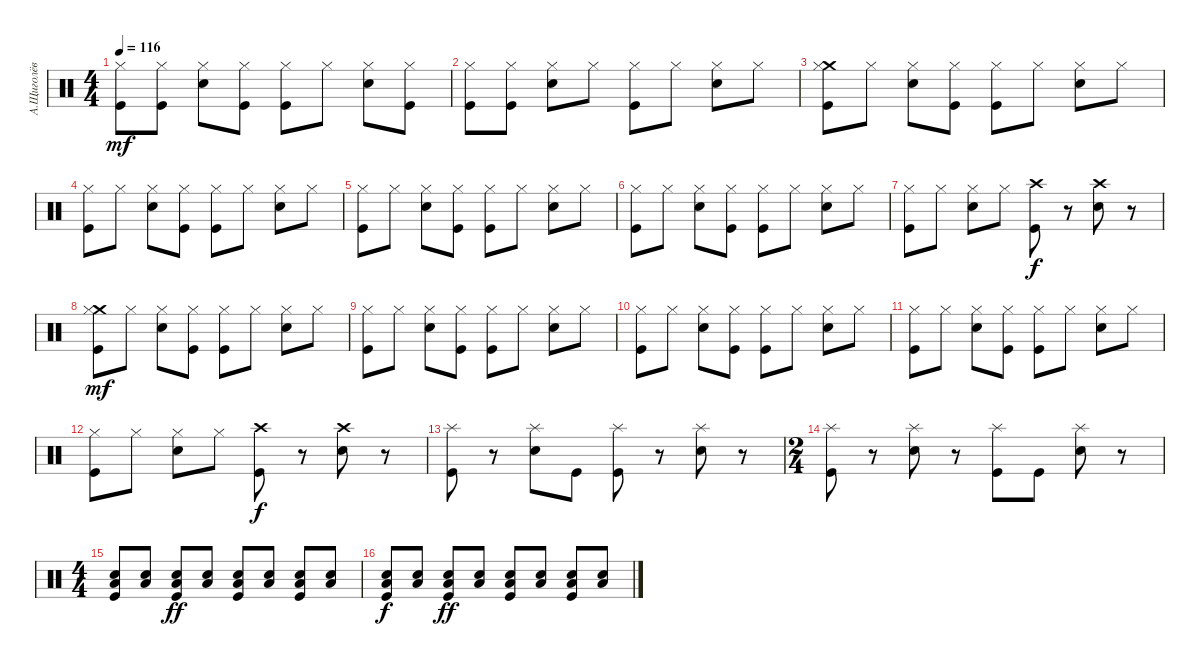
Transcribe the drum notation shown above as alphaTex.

\track ("А.Щиголёв" "А.Щиголёв") {instrument percussion}
\staff {score}
\articulation defaults
\ts (4 4)
\tempo 116
\clef neutral
\ks c
("Kick (hit)" "Hi-Hat (closed)").8{dy mf} ("Kick (hit)" "Hi-Hat (closed)").8 ("Electric Snare (hit)" "Hi-Hat (closed)").8 ("Kick (hit)" "Hi-Hat (closed)").8 ("Kick (hit)" "Hi-Hat (closed)").8 "Hi-Hat (closed)".8 ("Electric Snare (hit)" "Hi-Hat (closed)").8 ("Kick (hit)" "Hi-Hat (closed)").8 |
("Kick (hit)" "Hi-Hat (closed)").8 ("Kick (hit)" "Hi-Hat (closed)").8 ("Electric Snare (hit)" "Hi-Hat (closed)").8 "Hi-Hat (closed)".8 ("Kick (hit)" "Hi-Hat (closed)").8 "Hi-Hat (closed)".8 ("Electric Snare (hit)" "Hi-Hat (closed)").8 "Hi-Hat (closed)".8 |
("Crash medium (hit)" "Hi-Hat (closed)" "Kick (hit)").8 "Hi-Hat (closed)".8 ("Hi-Hat (closed)" "Electric Snare (hit)").8 ("Hi-Hat (closed)" "Kick (hit)").8 ("Hi-Hat (closed)" "Kick (hit)").8 "Hi-Hat (closed)".8 ("Hi-Hat (closed)" "Electric Snare (hit)").8 "Hi-Hat (closed)".8 |
("Hi-Hat (closed)" "Kick (hit)").8 "Hi-Hat (closed)".8 ("Hi-Hat (closed)" "Electric Snare (hit)").8 ("Hi-Hat (closed)" "Kick (hit)").8 ("Hi-Hat (closed)" "Kick (hit)").8 "Hi-Hat (closed)".8 ("Hi-Hat (closed)" "Electric Snare (hit)").8 "Hi-Hat (closed)".8 |
("Hi-Hat (closed)" "Kick (hit)").8 "Hi-Hat (closed)".8 ("Hi-Hat (closed)" "Electric Snare (hit)").8 ("Hi-Hat (closed)" "Kick (hit)").8 ("Hi-Hat (closed)" "Kick (hit)").8 "Hi-Hat (closed)".8 ("Hi-Hat (closed)" "Electric Snare (hit)").8 "Hi-Hat (closed)".8 |
("Hi-Hat (closed)" "Kick (hit)").8 "Hi-Hat (closed)".8 ("Hi-Hat (closed)" "Electric Snare (hit)").8 ("Hi-Hat (closed)" "Kick (hit)").8 ("Hi-Hat (closed)" "Kick (hit)").8 "Hi-Hat (closed)".8 ("Hi-Hat (closed)" "Electric Snare (hit)").8 "Hi-Hat (closed)".8 |
("Hi-Hat (closed)" "Kick (hit)").8 "Hi-Hat (closed)".8 ("Hi-Hat (closed)" "Electric Snare (hit)").8 "Hi-Hat (closed)".8 ("Kick (hit)" "Crash high (hit)").8{dy f} r.8 ("Electric Snare (hit)" "Crash high (hit)").8 r.8 |
("Crash medium (hit)" "Hi-Hat (closed)" "Kick (hit)").8{dy mf} "Hi-Hat (closed)".8 ("Hi-Hat (closed)" "Electric Snare (hit)").8 ("Hi-Hat (closed)" "Kick (hit)").8 ("Hi-Hat (closed)" "Kick (hit)").8 "Hi-Hat (closed)".8 ("Hi-Hat (closed)" "Electric Snare (hit)").8 "Hi-Hat (closed)".8 |
("Hi-Hat (closed)" "Kick (hit)").8 "Hi-Hat (closed)".8 ("Hi-Hat (closed)" "Electric Snare (hit)").8 ("Hi-Hat (closed)" "Kick (hit)").8 ("Hi-Hat (closed)" "Kick (hit)").8 "Hi-Hat (closed)".8 ("Hi-Hat (closed)" "Electric Snare (hit)").8 "Hi-Hat (closed)".8 |
("Hi-Hat (closed)" "Kick (hit)").8 "Hi-Hat (closed)".8 ("Hi-Hat (closed)" "Electric Snare (hit)").8 ("Hi-Hat (closed)" "Kick (hit)").8 ("Hi-Hat (closed)" "Kick (hit)").8 "Hi-Hat (closed)".8 ("Hi-Hat (closed)" "Electric Snare (hit)").8 "Hi-Hat (closed)".8 |
("Hi-Hat (closed)" "Kick (hit)").8 "Hi-Hat (closed)".8 ("Hi-Hat (closed)" "Electric Snare (hit)").8 ("Hi-Hat (closed)" "Kick (hit)").8 ("Hi-Hat (closed)" "Kick (hit)").8 "Hi-Hat (closed)".8 ("Hi-Hat (closed)" "Electric Snare (hit)").8 "Hi-Hat (closed)".8 |
("Hi-Hat (closed)" "Kick (hit)").8 "Hi-Hat (closed)".8 ("Hi-Hat (closed)" "Electric Snare (hit)").8 "Hi-Hat (closed)".8 ("Kick (hit)" "Crash high (hit)").8{dy f} r.8 ("Electric Snare (hit)" "Crash high (hit)").8 r.8 |
("Splash (hit)" "Kick (hit)").8 r.8 ("Splash (hit)" "Electric Snare (hit)").8 "Kick (hit)".8 ("Splash (hit)" "Kick (hit)").8 r.8 ("Splash (hit)" "Electric Snare (hit)").8 r.8 |
\ts (2 4)
("Splash (hit)" "Kick (hit)").8 r.8 ("Splash (hit)" "Electric Snare (hit)").8 r.8 ("Splash (hit)" "Kick (hit)").8 "Kick (hit)".8 ("Splash (hit)" "Electric Snare (hit)").8 r.8 |
\ts (4 4)
("Low Floor Tom (hit)" "Electric Snare (hit)" "Kick (hit)").8 ("Low Floor Tom (hit)" "Electric Snare (hit)").8 ("Low Floor Tom (hit)" "Electric Snare (hit)" "Kick (hit)").8{dy ff} ("Low Floor Tom (hit)" "Electric Snare (hit)").8 ("Low Floor Tom (hit)" "Electric Snare (hit)" "Kick (hit)").8 ("Low Floor Tom (hit)" "Electric Snare (hit)").8 ("Low Floor Tom (hit)" "Electric Snare (hit)" "Kick (hit)").8 ("Low Floor Tom (hit)" "Electric Snare (hit)").8 |
("Low Floor Tom (hit)" "Electric Snare (hit)" "Kick (hit)").8{dy f} ("Low Floor Tom (hit)" "Electric Snare (hit)").8 ("Low Floor Tom (hit)" "Electric Snare (hit)" "Kick (hit)").8{dy ff} ("Low Floor Tom (hit)" "Electric Snare (hit)").8 ("Low Floor Tom (hit)" "Electric Snare (hit)" "Kick (hit)").8 ("Low Floor Tom (hit)" "Electric Snare (hit)").8 ("Low Floor Tom (hit)" "Electric Snare (hit)" "Kick (hit)").8 ("Low Floor Tom (hit)" "Electric Snare (hit)").8
